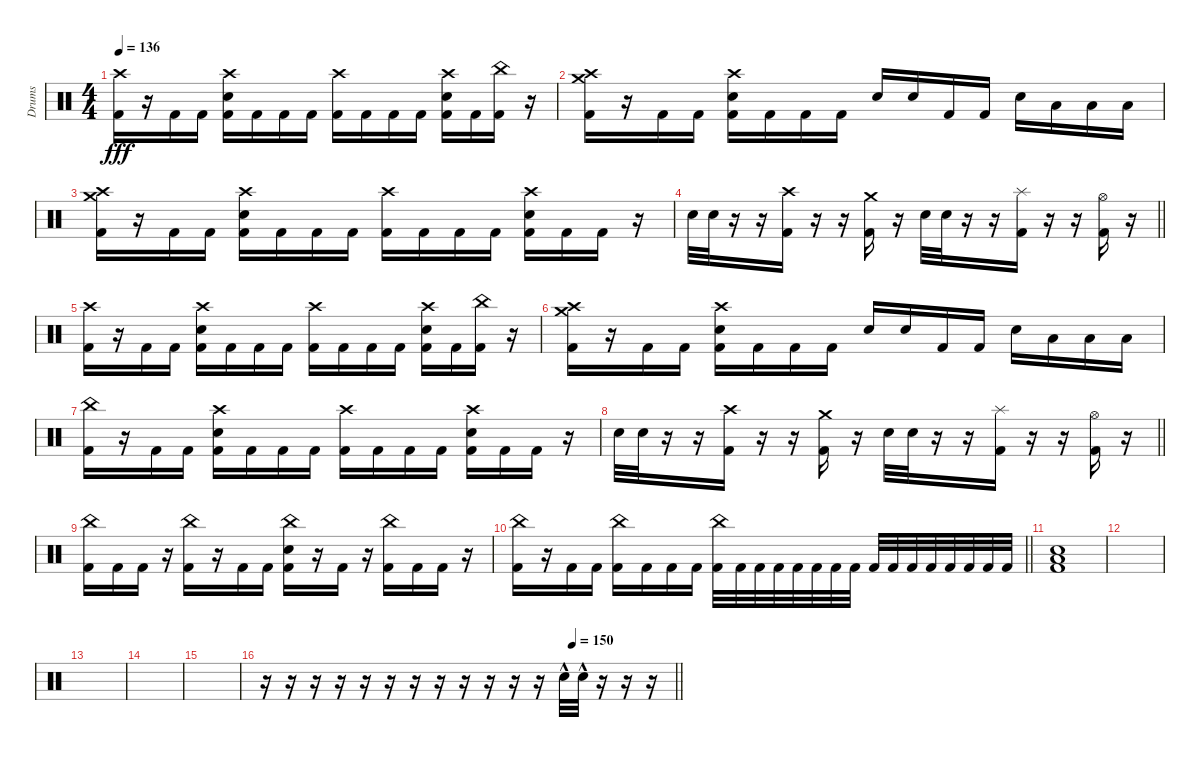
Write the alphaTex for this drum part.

\track ("Drums" "Drums") {instrument percussion}
\staff {score}
\articulation defaults
\ts (4 4)
\section ("" "")
\tempo 136
\clef neutral
\ks c
("Crash high (hit)" "Kick (hit) 2").16{dy fff} r.16 "Kick (hit) 2".16 "Kick (hit) 2".16 ("Crash high (hit)" "Electric Snare (hit)" "Kick (hit) 2").16 "Kick (hit) 2".16 "Kick (hit) 2".16 "Kick (hit) 2".16 ("Crash high (hit)" "Kick (hit) 2").16 "Kick (hit) 2".16 "Kick (hit) 2".16 "Kick (hit) 2".16 ("Crash high (hit)" "Electric Snare (hit)" "Kick (hit) 2").16 "Kick (hit) 2".16 ("China (hit)" "Kick (hit) 2").16 r.16 |
("Crash high (hit)" "Crash medium (hit)" "Kick (hit) 2").16 r.16 "Kick (hit) 2".16 "Kick (hit) 2".16 ("Crash high (hit)" "Electric Snare (hit)" "Kick (hit) 2").16 "Kick (hit) 2".16 "Kick (hit) 2".16 "Kick (hit) 2".16 "Electric Snare (hit)".16 "Electric Snare (hit)".16 "Kick (hit) 2".16 "Kick (hit) 2".16 "Electric Snare (hit)".16 "Low Tom (hit)".16 "Low Floor Tom (hit)".16 "Low Floor Tom (hit)".16 |
("Crash high (hit)" "Crash medium (hit)" "Kick (hit) 2").16 r.16 "Kick (hit) 2".16 "Kick (hit) 2".16 ("Crash high (hit)" "Electric Snare (hit)" "Kick (hit) 2").16 "Kick (hit) 2".16 "Kick (hit) 2".16 "Kick (hit) 2".16 ("Crash high (hit)" "Kick (hit) 2").16 "Kick (hit) 2".16 "Kick (hit) 2".16 "Kick (hit) 2".16 ("Crash high (hit)" "Electric Snare (hit)" "Kick (hit) 2").16 "Kick (hit) 2".16 "Kick (hit) 2".16 r.16 |
\barLineRight lightlight "Electric Snare (hit)".32 "Electric Snare (hit)".32
r.16 r.16 ("Crash high (hit)" "Kick (hit) 2").16 r.16 r.16 ("Crash medium (hit)" "Kick (hit) 2").16 r.16 "Electric Snare (hit)".32 "Electric Snare (hit)".32 r.16 r.16 ("Splash (hit)" "Kick (hit) 2").16 r.16 r.16 ("Hi-Hat (open)" "Kick (hit) 2").16 r.16 |
("Crash high (hit)" "Kick (hit) 2").16 r.16 "Kick (hit) 2".16 "Kick (hit) 2".16 ("Crash high (hit)" "Electric Snare (hit)" "Kick (hit) 2").16 "Kick (hit) 2".16 "Kick (hit) 2".16 "Kick (hit) 2".16 ("Crash high (hit)" "Kick (hit) 2").16 "Kick (hit) 2".16 "Kick (hit) 2".16 "Kick (hit) 2".16 ("Crash high (hit)" "Electric Snare (hit)" "Kick (hit) 2").16 "Kick (hit) 2".16 ("China (hit)" "Kick (hit) 2").16 r.16 |
("Crash high (hit)" "Crash medium (hit)" "Kick (hit) 2").16 r.16 "Kick (hit) 2".16 "Kick (hit) 2".16 ("Crash high (hit)" "Electric Snare (hit)" "Kick (hit) 2").16 "Kick (hit) 2".16 "Kick (hit) 2".16 "Kick (hit) 2".16 "Electric Snare (hit)".16 "Electric Snare (hit)".16 "Kick (hit) 2".16 "Kick (hit) 2".16 "Electric Snare (hit)".16 "Low Tom (hit)".16 "Low Floor Tom (hit)".16 "Low Floor Tom (hit)".16 |
("China (hit)" "Kick (hit) 2").16 r.16 "Kick (hit) 2".16 "Kick (hit) 2".16 ("Crash high (hit)" "Electric Snare (hit)" "Kick (hit) 2").16 "Kick (hit) 2".16 "Kick (hit) 2".16 "Kick (hit) 2".16 ("Crash high (hit)" "Kick (hit) 2").16 "Kick (hit) 2".16 "Kick (hit) 2".16 "Kick (hit) 2".16 ("Crash high (hit)" "Electric Snare (hit)" "Kick (hit) 2").16 "Kick (hit) 2".16 "Kick (hit) 2".16 r.16 |
\barLineRight lightlight "Electric Snare (hit)".32 "Electric Snare (hit)".32
r.16 r.16 ("Crash high (hit)" "Kick (hit) 2").16 r.16 r.16 ("Crash medium (hit)" "Kick (hit) 2").16 r.16 "Electric Snare (hit)".32 "Electric Snare (hit)".32 r.16 r.16 ("Splash (hit)" "Kick (hit) 2").16 r.16 r.16 ("Hi-Hat (open)" "Kick (hit) 2").16 r.16 |
\section ("" "")
("China (hit)" "Kick (hit) 2").16 "Kick (hit) 2".16 "Kick (hit) 2".16 r.16 ("China (hit)" "Kick (hit) 2").16 r.16 "Kick (hit) 2".16 "Kick (hit) 2".16 ("China (hit)" "Electric Snare (hit)" "Kick (hit) 2").16 r.16 "Kick (hit) 2".16 r.16 ("China (hit)" "Kick (hit) 2").16 "Kick (hit) 2".16 "Kick (hit) 2".16 r.16 |
\barLineRight lightlight
("China (hit)" "Kick (hit) 2").16 r.16 "Kick (hit) 2".16 "Kick (hit) 2".16 ("China (hit)" "Kick (hit) 2").16 "Kick (hit) 2".16 "Kick (hit) 2".16 "Kick (hit) 2".16 ("China (hit)" "Kick (hit) 2").32 "Kick (hit) 2".32 "Kick (hit) 2".32 "Kick (hit) 2".32 "Kick (hit) 2".32 "Kick (hit) 2".32 "Kick (hit) 2".32 "Kick (hit) 2".32 "Kick (hit) 2".32 "Kick (hit) 2".32 "Kick (hit) 2".32 "Kick (hit) 2".32 "Kick (hit) 2".32 "Kick (hit) 2".32 "Kick (hit) 2".32 "Kick (hit) 2".32 |
("Low Tom (hit)" "Electric Snare (hit)" "Kick (hit) 2").1 |
|
|
|
|
\tempo (150 0.75)
\barLineRight lightlight
r.16 r.16 r.16 r.16 r.16 r.16 r.16 r.16 r.16 r.16 r.16 r.16 "Electric Snare (hit)"{hac}.32 "Electric Snare (hit)"{hac}.32 r.16 r.16 r.16
